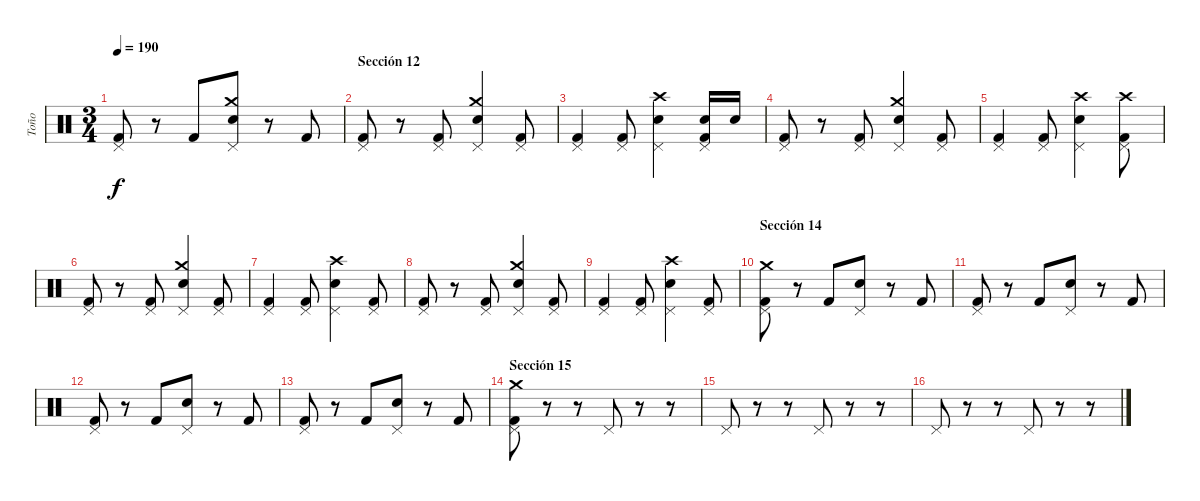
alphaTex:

\track ("Toño" "Toño") {instrument percussion}
\staff {score}
\articulation defaults
\ts (3 4)
\tempo 190
\clef neutral
\ks c
("Pedal Hi-Hat (hit)" "Kick (hit) 2").8{dy f} r.8 "Kick (hit) 2".8 ("Pedal Hi-Hat (hit)" "Crash medium (hit)" "Electric Snare (hit)").8 r.8 "Kick (hit) 2".8 |
\section ("" "Sección 12")
("Pedal Hi-Hat (hit)" "Kick (hit) 2").8 r.8 ("Pedal Hi-Hat (hit)" "Kick (hit) 2").8 ("Pedal Hi-Hat (hit)" "Crash medium (hit)" "Electric Snare (hit)").4 ("Pedal Hi-Hat (hit)" "Kick (hit) 2").8 |
("Pedal Hi-Hat (hit)" "Kick (hit) 2").4 ("Pedal Hi-Hat (hit)" "Kick (hit) 2").8 ("Pedal Hi-Hat (hit)" "Crash high (hit)" "Electric Snare (hit)").4 ("Pedal Hi-Hat (hit)" "Electric Snare (hit)" "Kick (hit) 2").16 "Electric Snare (hit)".16 |
("Pedal Hi-Hat (hit)" "Kick (hit) 2").8 r.8 ("Pedal Hi-Hat (hit)" "Kick (hit) 2").8 ("Pedal Hi-Hat (hit)" "Crash medium (hit)" "Electric Snare (hit)").4 ("Pedal Hi-Hat (hit)" "Kick (hit) 2").8 |
("Pedal Hi-Hat (hit)" "Kick (hit) 2").4 ("Pedal Hi-Hat (hit)" "Kick (hit) 2").8 ("Pedal Hi-Hat (hit)" "Crash high (hit)" "Electric Snare (hit)").4 ("Pedal Hi-Hat (hit)" "Crash high (hit)" "Kick (hit) 2").8 |
("Pedal Hi-Hat (hit)" "Kick (hit) 2").8 r.8 ("Pedal Hi-Hat (hit)" "Kick (hit) 2").8 ("Pedal Hi-Hat (hit)" "Crash medium (hit)" "Electric Snare (hit)").4 ("Pedal Hi-Hat (hit)" "Kick (hit) 2").8 |
("Pedal Hi-Hat (hit)" "Kick (hit) 2").4 ("Pedal Hi-Hat (hit)" "Kick (hit) 2").8 ("Pedal Hi-Hat (hit)" "Crash high (hit)" "Electric Snare (hit)").4 ("Pedal Hi-Hat (hit)" "Kick (hit) 2").8 |
("Pedal Hi-Hat (hit)" "Kick (hit) 2").8 r.8 ("Pedal Hi-Hat (hit)" "Kick (hit) 2").8 ("Pedal Hi-Hat (hit)" "Crash medium (hit)" "Electric Snare (hit)").4 ("Pedal Hi-Hat (hit)" "Kick (hit) 2").8 |
("Pedal Hi-Hat (hit)" "Kick (hit) 2").4 ("Pedal Hi-Hat (hit)" "Kick (hit) 2").8 ("Pedal Hi-Hat (hit)" "Crash high (hit)" "Electric Snare (hit)").4 ("Pedal Hi-Hat (hit)" "Kick (hit) 2").8 |
\section ("" "Sección 14")
("Pedal Hi-Hat (hit)" "Crash medium (hit)" "Kick (hit) 2").8 r.8 "Kick (hit) 2".8 ("Pedal Hi-Hat (hit)" "Electric Snare (hit)").8 r.8 "Kick (hit) 2".8 |
("Pedal Hi-Hat (hit)" "Kick (hit) 2").8 r.8 "Kick (hit) 2".8 ("Pedal Hi-Hat (hit)" "Electric Snare (hit)").8 r.8 "Kick (hit) 2".8 |
("Pedal Hi-Hat (hit)" "Kick (hit) 2").8 r.8 "Kick (hit) 2".8 ("Pedal Hi-Hat (hit)" "Electric Snare (hit)").8 r.8 "Kick (hit) 2".8 |
("Pedal Hi-Hat (hit)" "Kick (hit) 2").8 r.8 "Kick (hit) 2".8 ("Pedal Hi-Hat (hit)" "Electric Snare (hit)").8 r.8 "Kick (hit) 2".8 |
\section ("" "Sección 15")
("Pedal Hi-Hat (hit)" "Crash medium (hit)" "Kick (hit) 2").8 r.8 r.8 "Pedal Hi-Hat (hit)".8 r.8 r.8 |
"Pedal Hi-Hat (hit)".8 r.8 r.8 "Pedal Hi-Hat (hit)".8 r.8 r.8 |
"Pedal Hi-Hat (hit)".8 r.8 r.8 "Pedal Hi-Hat (hit)".8 r.8 r.8
